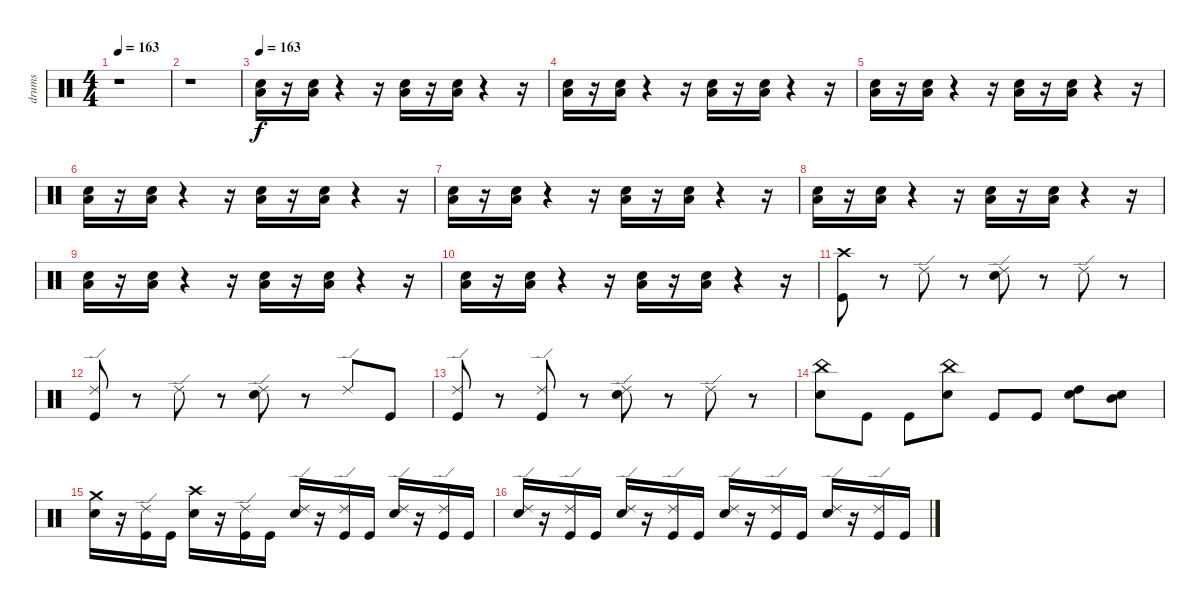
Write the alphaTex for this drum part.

\track ("drums" "drums") {instrument percussion}
\staff {score}
\articulation defaults
\ts (4 4)
\tempo 163
\clef neutral
\ks c
r.1{dy f} |
r.1 |
\tempo 163
("Snare (hit) 2" "Low Floor Tom (hit)").16 r.16 ("Snare (hit) 2" "Low Floor Tom (hit)").16 r.4 r.16 ("Snare (hit) 2" "Low Floor Tom (hit)").16 r.16 ("Snare (hit) 2" "Low Floor Tom (hit)").16 r.4 r.16 |
("Snare (hit) 2" "Low Floor Tom (hit)").16 r.16 ("Snare (hit) 2" "Low Floor Tom (hit)").16 r.4 r.16 ("Snare (hit) 2" "Low Floor Tom (hit)").16 r.16 ("Snare (hit) 2" "Low Floor Tom (hit)").16 r.4 r.16 |
("Snare (hit) 2" "Low Floor Tom (hit)").16 r.16 ("Snare (hit) 2" "Low Floor Tom (hit)").16 r.4 r.16 ("Snare (hit) 2" "Low Floor Tom (hit)").16 r.16 ("Snare (hit) 2" "Low Floor Tom (hit)").16 r.4 r.16 |
("Snare (hit) 2" "Low Floor Tom (hit)").16 r.16 ("Snare (hit) 2" "Low Floor Tom (hit)").16 r.4 r.16 ("Snare (hit) 2" "Low Floor Tom (hit)").16 r.16 ("Snare (hit) 2" "Low Floor Tom (hit)").16 r.4 r.16 |
("Snare (hit) 2" "Low Floor Tom (hit)").16 r.16 ("Snare (hit) 2" "Low Floor Tom (hit)").16 r.4 r.16 ("Snare (hit) 2" "Low Floor Tom (hit)").16 r.16 ("Snare (hit) 2" "Low Floor Tom (hit)").16 r.4 r.16 |
("Snare (hit) 2" "Low Floor Tom (hit)").16 r.16 ("Snare (hit) 2" "Low Floor Tom (hit)").16 r.4 r.16 ("Snare (hit) 2" "Low Floor Tom (hit)").16 r.16 ("Snare (hit) 2" "Low Floor Tom (hit)").16 r.4 r.16 |
("Snare (hit) 2" "Low Floor Tom (hit)").16 r.16 ("Snare (hit) 2" "Low Floor Tom (hit)").16 r.4 r.16 ("Snare (hit) 2" "Low Floor Tom (hit)").16 r.16 ("Snare (hit) 2" "Low Floor Tom (hit)").16 r.4 r.16 |
("Snare (hit) 2" "Low Floor Tom (hit)").16 r.16 ("Snare (hit) 2" "Low Floor Tom (hit)").16 r.4 r.16 ("Snare (hit) 2" "Low Floor Tom (hit)").16 r.16 ("Snare (hit) 2" "Low Floor Tom (hit)").16 r.4 r.16 |
("Crash high (hit)" "Kick (hit)").8 r.8 "Ride (edge) 2".8 r.8 ("Ride (edge) 2" "Snare (hit) 2").8 r.8 "Ride (edge) 2".8 r.8 |
("Ride (edge) 2" "Kick (hit)").8 r.8 "Ride (edge) 2".8 r.8 ("Ride (edge) 2" "Snare (hit) 2").8 r.8 "Ride (edge) 2".8 "Kick (hit)".8 |
("Ride (edge) 2" "Kick (hit)").8 r.8 ("Ride (edge) 2" "Kick (hit)").8 r.8 ("Ride (edge) 2" "Snare (hit) 2").8 r.8 "Ride (edge) 2".8 r.8 |
("China (hit)" "Snare (hit) 2").8 "Kick (hit)".8 "Kick (hit)".8 ("China (hit)" "Snare (hit) 2").8 "Kick (hit)".8 "Kick (hit)".8 ("Snare (hit) 2" "High Tom (hit)").8 ("Snare (hit) 2" "Mid Tom (hit)").8 |
("Crash medium (hit)" "Snare (hit) 2").16 r.16 ("Ride (edge) 2" "Kick (hit)").16 "Kick (hit)".16 ("Crash high (hit)" "Snare (hit) 2").16 r.16 ("Ride (edge) 2" "Kick (hit)").16 "Kick (hit)".16 ("Ride (edge) 2" "Snare (hit) 2").16 r.16 ("Ride (edge) 2" "Kick (hit)").16 "Kick (hit)".16 ("Ride (edge) 2" "Snare (hit) 2").16 r.16 ("Ride (edge) 2" "Kick (hit)").16 "Kick (hit)".16 |
("Ride (edge) 2" "Snare (hit) 2").16 r.16 ("Ride (edge) 2" "Kick (hit)").16 "Kick (hit)".16 ("Ride (edge) 2" "Snare (hit) 2").16 r.16 ("Ride (edge) 2" "Kick (hit)").16 "Kick (hit)".16 ("Ride (edge) 2" "Snare (hit) 2").16 r.16 ("Ride (edge) 2" "Kick (hit)").16 "Kick (hit)".16 ("Ride (edge) 2" "Snare (hit) 2").16 r.16 ("Ride (edge) 2" "Kick (hit)").16 "Kick (hit)".16
